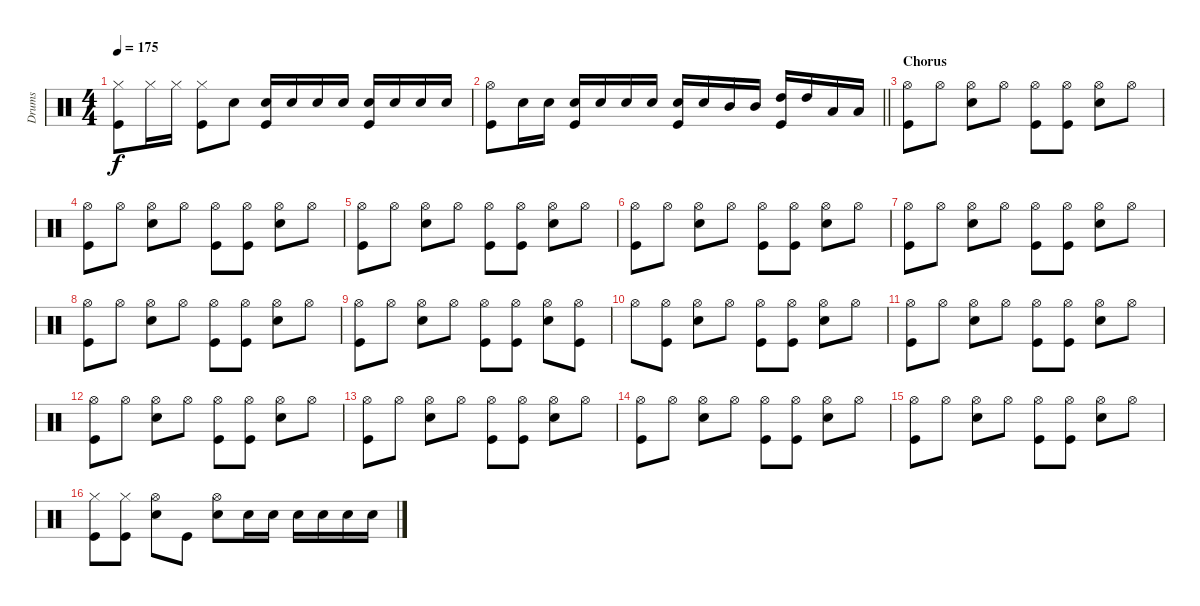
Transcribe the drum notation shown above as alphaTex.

\track ("Drums" "Drums") {instrument percussion}
\staff {score}
\articulation defaults
\ts (4 4)
\tempo 175
\clef neutral
\ks c
("Hi-Hat (closed)" "Kick (hit)").8{dy f} "Hi-Hat (closed)".16 "Hi-Hat (closed)".16 ("Hi-Hat (closed)" "Kick (hit)").8 "Snare (hit) 2".8 ("Snare (hit) 2" "Kick (hit)").16 "Snare (hit) 2".16 "Snare (hit) 2".16 "Snare (hit) 2".16 ("Snare (hit) 2" "Kick (hit)").16 "Snare (hit) 2".16 "Snare (hit) 2".16 "Snare (hit) 2".16 |
\barLineRight lightlight
("Hi-Hat (open)" "Kick (hit)").8 "Snare (hit) 2".16 "Snare (hit) 2".16 ("Snare (hit) 2" "Kick (hit)").16 "Snare (hit) 2".16 "Snare (hit) 2".16 "Snare (hit) 2".16 ("Snare (hit) 2" "Kick (hit)").16 "Snare (hit) 2".16 "Mid Tom (hit)".16 "Mid Tom (hit)".16 ("High Tom (hit)" "Kick (hit)").16 "High Tom (hit)".16 "Low Tom (hit)".16 "Low Tom (hit)".16 |
\section ("" "Chorus")
("Hi-Hat (open)" "Kick (hit)").8 "Hi-Hat (open)".8 ("Hi-Hat (open)" "Snare (hit) 2").8 "Hi-Hat (open)".8 ("Hi-Hat (open)" "Kick (hit)").8 ("Hi-Hat (open)" "Kick (hit)").8 ("Hi-Hat (open)" "Snare (hit) 2").8 "Hi-Hat (open)".8 |
("Hi-Hat (open)" "Kick (hit)").8 "Hi-Hat (open)".8 ("Hi-Hat (open)" "Snare (hit) 2").8 "Hi-Hat (open)".8 ("Hi-Hat (open)" "Kick (hit)").8 ("Hi-Hat (open)" "Kick (hit)").8 ("Hi-Hat (open)" "Snare (hit) 2").8 "Hi-Hat (open)".8 |
("Hi-Hat (open)" "Kick (hit)").8 "Hi-Hat (open)".8 ("Hi-Hat (open)" "Snare (hit) 2").8 "Hi-Hat (open)".8 ("Hi-Hat (open)" "Kick (hit)").8 ("Hi-Hat (open)" "Kick (hit)").8 ("Hi-Hat (open)" "Snare (hit) 2").8 "Hi-Hat (open)".8 |
("Hi-Hat (open)" "Kick (hit)").8 "Hi-Hat (open)".8 ("Hi-Hat (open)" "Snare (hit) 2").8 "Hi-Hat (open)".8 ("Hi-Hat (open)" "Kick (hit)").8 ("Hi-Hat (open)" "Kick (hit)").8 ("Hi-Hat (open)" "Snare (hit) 2").8 "Hi-Hat (open)".8 |
("Hi-Hat (open)" "Kick (hit)").8 "Hi-Hat (open)".8 ("Hi-Hat (open)" "Snare (hit) 2").8 "Hi-Hat (open)".8 ("Hi-Hat (open)" "Kick (hit)").8 ("Hi-Hat (open)" "Kick (hit)").8 ("Hi-Hat (open)" "Snare (hit) 2").8 "Hi-Hat (open)".8 |
("Hi-Hat (open)" "Kick (hit)").8 "Hi-Hat (open)".8 ("Hi-Hat (open)" "Snare (hit) 2").8 "Hi-Hat (open)".8 ("Hi-Hat (open)" "Kick (hit)").8 ("Hi-Hat (open)" "Kick (hit)").8 ("Hi-Hat (open)" "Snare (hit) 2").8 "Hi-Hat (open)".8 |
("Hi-Hat (open)" "Kick (hit)").8 "Hi-Hat (open)".8 ("Hi-Hat (open)" "Snare (hit) 2").8 "Hi-Hat (open)".8 ("Hi-Hat (open)" "Kick (hit)").8 ("Hi-Hat (open)" "Kick (hit)").8 ("Hi-Hat (open)" "Snare (hit) 2").8 ("Hi-Hat (open)" "Kick (hit)").8 |
"Hi-Hat (open)".8 ("Hi-Hat (open)" "Kick (hit)").8 ("Hi-Hat (open)" "Snare (hit) 2").8 "Hi-Hat (open)".8 ("Hi-Hat (open)" "Kick (hit)").8 ("Hi-Hat (open)" "Kick (hit)").8 ("Hi-Hat (open)" "Snare (hit) 2").8 "Hi-Hat (open)".8 |
("Hi-Hat (open)" "Kick (hit)").8 "Hi-Hat (open)".8 ("Hi-Hat (open)" "Snare (hit) 2").8 "Hi-Hat (open)".8 ("Hi-Hat (open)" "Kick (hit)").8 ("Hi-Hat (open)" "Kick (hit)").8 ("Hi-Hat (open)" "Snare (hit) 2").8 "Hi-Hat (open)".8 |
("Hi-Hat (open)" "Kick (hit)").8 "Hi-Hat (open)".8 ("Hi-Hat (open)" "Snare (hit) 2").8 "Hi-Hat (open)".8 ("Hi-Hat (open)" "Kick (hit)").8 ("Hi-Hat (open)" "Kick (hit)").8 ("Hi-Hat (open)" "Snare (hit) 2").8 "Hi-Hat (open)".8 |
("Hi-Hat (open)" "Kick (hit)").8 "Hi-Hat (open)".8 ("Hi-Hat (open)" "Snare (hit) 2").8 "Hi-Hat (open)".8 ("Hi-Hat (open)" "Kick (hit)").8 ("Hi-Hat (open)" "Kick (hit)").8 ("Hi-Hat (open)" "Snare (hit) 2").8 "Hi-Hat (open)".8 |
("Hi-Hat (open)" "Kick (hit)").8 "Hi-Hat (open)".8 ("Hi-Hat (open)" "Snare (hit) 2").8 "Hi-Hat (open)".8 ("Hi-Hat (open)" "Kick (hit)").8 ("Hi-Hat (open)" "Kick (hit)").8 ("Hi-Hat (open)" "Snare (hit) 2").8 "Hi-Hat (open)".8 |
("Hi-Hat (open)" "Kick (hit)").8 "Hi-Hat (open)".8 ("Hi-Hat (open)" "Snare (hit) 2").8 "Hi-Hat (open)".8 ("Hi-Hat (open)" "Kick (hit)").8 ("Hi-Hat (open)" "Kick (hit)").8 ("Hi-Hat (open)" "Snare (hit) 2").8 "Hi-Hat (open)".8 |
("Hi-Hat (closed)" "Kick (hit)").8 ("Hi-Hat (closed)" "Kick (hit)").8 ("Hi-Hat (open)" "Snare (hit) 2").8 "Kick (hit)".8 ("Hi-Hat (open)" "Snare (hit) 2").8 "Snare (hit) 2".16 "Snare (hit) 2".16 "Snare (hit) 2".16 "Snare (hit) 2".16 "Snare (hit) 2".16 "Snare (hit) 2".16
